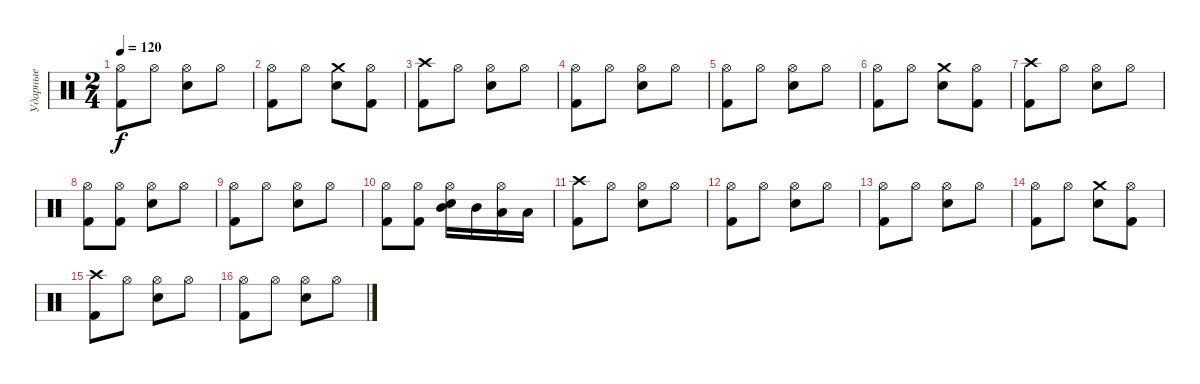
\track ("Ударные" "Ударные") {instrument percussion}
\staff {score}
\articulation defaults
\ts (2 4)
\tempo 120
\clef neutral
\ks c
("Hi-Hat (open)" "Kick (hit) 2").8{dy f} "Hi-Hat (open)".8 ("Hi-Hat (open)" "Electric Snare (hit)").8 "Hi-Hat (open)".8 |
("Hi-Hat (open)" "Kick (hit) 2").8 "Hi-Hat (open)".8 ("Crash medium (hit)" "Electric Snare (hit)").8 ("Hi-Hat (open)" "Kick (hit) 2").8 |
("Crash high (hit)" "Kick (hit) 2").8 "Hi-Hat (open)".8 ("Hi-Hat (open)" "Electric Snare (hit)").8 "Hi-Hat (open)".8 |
("Hi-Hat (open)" "Kick (hit) 2").8 "Hi-Hat (open)".8 ("Hi-Hat (open)" "Electric Snare (hit)").8 "Hi-Hat (open)".8 |
("Hi-Hat (open)" "Kick (hit) 2").8 "Hi-Hat (open)".8 ("Hi-Hat (open)" "Electric Snare (hit)").8 "Hi-Hat (open)".8 |
("Hi-Hat (open)" "Kick (hit) 2").8 "Hi-Hat (open)".8 ("Crash medium (hit)" "Electric Snare (hit)").8 ("Hi-Hat (open)" "Kick (hit) 2").8 |
("Crash high (hit)" "Kick (hit) 2").8 "Hi-Hat (open)".8 ("Hi-Hat (open)" "Electric Snare (hit)").8 "Hi-Hat (open)".8 |
("Hi-Hat (open)" "Kick (hit) 2").8 ("Hi-Hat (open)" "Kick (hit) 2").8 ("Hi-Hat (open)" "Electric Snare (hit)").8 "Hi-Hat (open)".8 |
("Hi-Hat (open)" "Kick (hit) 2").8 "Hi-Hat (open)".8 ("Hi-Hat (open)" "Electric Snare (hit)").8 "Hi-Hat (open)".8 |
("Hi-Hat (open)" "Kick (hit) 2").8 ("Hi-Hat (open)" "Kick (hit) 2").8 ("Hi-Hat (open)" "Mid Tom (hit)" "Electric Snare (hit)").16 "Mid Tom (hit)".16 ("Hi-Hat (open)" "Low Tom (hit)").16 "Low Tom (hit)".16 |
("Crash high (hit)" "Kick (hit) 2").8 "Hi-Hat (open)".8 ("Hi-Hat (open)" "Electric Snare (hit)").8 "Hi-Hat (open)".8 |
("Hi-Hat (open)" "Kick (hit) 2").8 "Hi-Hat (open)".8 ("Hi-Hat (open)" "Electric Snare (hit)").8 "Hi-Hat (open)".8 |
("Hi-Hat (open)" "Kick (hit) 2").8 "Hi-Hat (open)".8 ("Hi-Hat (open)" "Electric Snare (hit)").8 "Hi-Hat (open)".8 |
("Hi-Hat (open)" "Kick (hit) 2").8 "Hi-Hat (open)".8 ("Crash medium (hit)" "Electric Snare (hit)").8 ("Hi-Hat (open)" "Kick (hit) 2").8 |
("Crash high (hit)" "Kick (hit) 2").8 "Hi-Hat (open)".8 ("Hi-Hat (open)" "Electric Snare (hit)").8 "Hi-Hat (open)".8 |
("Hi-Hat (open)" "Kick (hit) 2").8 "Hi-Hat (open)".8 ("Hi-Hat (open)" "Electric Snare (hit)").8 "Hi-Hat (open)".8
